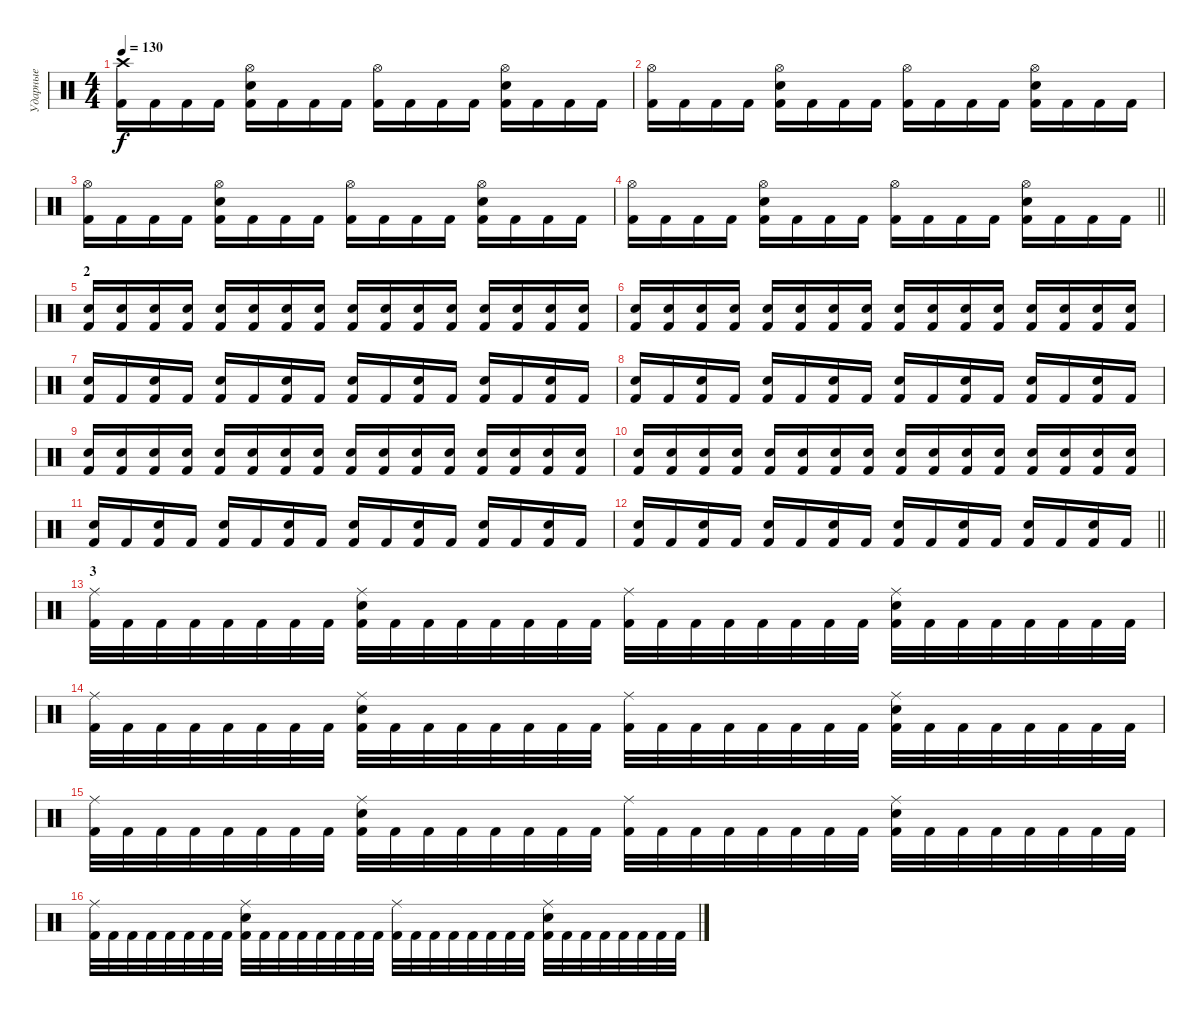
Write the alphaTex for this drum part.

\track ("Ударные" "Ударные") {instrument percussion}
\staff {score}
\articulation defaults
\ts (4 4)
\tempo 130
\clef neutral
\ks c
("Kick (hit) 2" "Crash high (hit)").16{dy f} "Kick (hit) 2".16 "Kick (hit) 2".16 "Kick (hit) 2".16 ("Kick (hit) 2" "Electric Snare (hit)" "Hi-Hat (open)").16 "Kick (hit) 2".16 "Kick (hit) 2".16 "Kick (hit) 2".16 ("Kick (hit) 2" "Hi-Hat (open)").16 "Kick (hit) 2".16 "Kick (hit) 2".16 "Kick (hit) 2".16 ("Kick (hit) 2" "Electric Snare (hit)" "Hi-Hat (open)").16 "Kick (hit) 2".16 "Kick (hit) 2".16 "Kick (hit) 2".16 |
("Kick (hit) 2" "Hi-Hat (open)").16 "Kick (hit) 2".16 "Kick (hit) 2".16 "Kick (hit) 2".16 ("Kick (hit) 2" "Electric Snare (hit)" "Hi-Hat (open)").16 "Kick (hit) 2".16 "Kick (hit) 2".16 "Kick (hit) 2".16 ("Kick (hit) 2" "Hi-Hat (open)").16 "Kick (hit) 2".16 "Kick (hit) 2".16 "Kick (hit) 2".16 ("Kick (hit) 2" "Electric Snare (hit)" "Hi-Hat (open)").16 "Kick (hit) 2".16 "Kick (hit) 2".16 "Kick (hit) 2".16 |
("Kick (hit) 2" "Hi-Hat (open)").16 "Kick (hit) 2".16 "Kick (hit) 2".16 "Kick (hit) 2".16 ("Kick (hit) 2" "Electric Snare (hit)" "Hi-Hat (open)").16 "Kick (hit) 2".16 "Kick (hit) 2".16 "Kick (hit) 2".16 ("Kick (hit) 2" "Hi-Hat (open)").16 "Kick (hit) 2".16 "Kick (hit) 2".16 "Kick (hit) 2".16 ("Kick (hit) 2" "Electric Snare (hit)" "Hi-Hat (open)").16 "Kick (hit) 2".16 "Kick (hit) 2".16 "Kick (hit) 2".16 |
\barLineRight lightlight
("Kick (hit) 2" "Hi-Hat (open)").16 "Kick (hit) 2".16 "Kick (hit) 2".16 "Kick (hit) 2".16 ("Kick (hit) 2" "Electric Snare (hit)" "Hi-Hat (open)").16 "Kick (hit) 2".16 "Kick (hit) 2".16 "Kick (hit) 2".16 ("Kick (hit) 2" "Hi-Hat (open)").16 "Kick (hit) 2".16 "Kick (hit) 2".16 "Kick (hit) 2".16 ("Kick (hit) 2" "Electric Snare (hit)" "Hi-Hat (open)").16 "Kick (hit) 2".16 "Kick (hit) 2".16 "Kick (hit) 2".16 |
\section ("" "2")
("Kick (hit) 2" "Electric Snare (hit)").16 ("Kick (hit) 2" "Electric Snare (hit)").16 ("Kick (hit) 2" "Electric Snare (hit)").16 ("Kick (hit) 2" "Electric Snare (hit)").16 ("Kick (hit) 2" "Electric Snare (hit)").16 ("Kick (hit) 2" "Electric Snare (hit)").16 ("Kick (hit) 2" "Electric Snare (hit)").16 ("Kick (hit) 2" "Electric Snare (hit)").16 ("Kick (hit) 2" "Electric Snare (hit)").16 ("Kick (hit) 2" "Electric Snare (hit)").16 ("Kick (hit) 2" "Electric Snare (hit)").16 ("Kick (hit) 2" "Electric Snare (hit)").16 ("Kick (hit) 2" "Electric Snare (hit)").16 ("Kick (hit) 2" "Electric Snare (hit)").16 ("Kick (hit) 2" "Electric Snare (hit)").16 ("Kick (hit) 2" "Electric Snare (hit)").16 |
("Kick (hit) 2" "Electric Snare (hit)").16 ("Kick (hit) 2" "Electric Snare (hit)").16 ("Kick (hit) 2" "Electric Snare (hit)").16 ("Kick (hit) 2" "Electric Snare (hit)").16 ("Kick (hit) 2" "Electric Snare (hit)").16 ("Kick (hit) 2" "Electric Snare (hit)").16 ("Kick (hit) 2" "Electric Snare (hit)").16 ("Kick (hit) 2" "Electric Snare (hit)").16 ("Kick (hit) 2" "Electric Snare (hit)").16 ("Kick (hit) 2" "Electric Snare (hit)").16 ("Kick (hit) 2" "Electric Snare (hit)").16 ("Kick (hit) 2" "Electric Snare (hit)").16 ("Kick (hit) 2" "Electric Snare (hit)").16 ("Kick (hit) 2" "Electric Snare (hit)").16 ("Kick (hit) 2" "Electric Snare (hit)").16 ("Kick (hit) 2" "Electric Snare (hit)").16 |
("Kick (hit) 2" "Electric Snare (hit)").16 "Kick (hit) 2".16 ("Kick (hit) 2" "Electric Snare (hit)").16 "Kick (hit) 2".16 ("Kick (hit) 2" "Electric Snare (hit)").16 "Kick (hit) 2".16 ("Kick (hit) 2" "Electric Snare (hit)").16 "Kick (hit) 2".16 ("Kick (hit) 2" "Electric Snare (hit)").16 "Kick (hit) 2".16 ("Kick (hit) 2" "Electric Snare (hit)").16 "Kick (hit) 2".16 ("Kick (hit) 2" "Electric Snare (hit)").16 "Kick (hit) 2".16 ("Kick (hit) 2" "Electric Snare (hit)").16 "Kick (hit) 2".16 |
("Kick (hit) 2" "Electric Snare (hit)").16 "Kick (hit) 2".16 ("Kick (hit) 2" "Electric Snare (hit)").16 "Kick (hit) 2".16 ("Kick (hit) 2" "Electric Snare (hit)").16 "Kick (hit) 2".16 ("Kick (hit) 2" "Electric Snare (hit)").16 "Kick (hit) 2".16 ("Kick (hit) 2" "Electric Snare (hit)").16 "Kick (hit) 2".16 ("Kick (hit) 2" "Electric Snare (hit)").16 "Kick (hit) 2".16 ("Kick (hit) 2" "Electric Snare (hit)").16 "Kick (hit) 2".16 ("Kick (hit) 2" "Electric Snare (hit)").16 "Kick (hit) 2".16 |
("Kick (hit) 2" "Electric Snare (hit)").16 ("Kick (hit) 2" "Electric Snare (hit)").16 ("Kick (hit) 2" "Electric Snare (hit)").16 ("Kick (hit) 2" "Electric Snare (hit)").16 ("Kick (hit) 2" "Electric Snare (hit)").16 ("Kick (hit) 2" "Electric Snare (hit)").16 ("Kick (hit) 2" "Electric Snare (hit)").16 ("Kick (hit) 2" "Electric Snare (hit)").16 ("Kick (hit) 2" "Electric Snare (hit)").16 ("Kick (hit) 2" "Electric Snare (hit)").16 ("Kick (hit) 2" "Electric Snare (hit)").16 ("Kick (hit) 2" "Electric Snare (hit)").16 ("Kick (hit) 2" "Electric Snare (hit)").16 ("Kick (hit) 2" "Electric Snare (hit)").16 ("Kick (hit) 2" "Electric Snare (hit)").16 ("Kick (hit) 2" "Electric Snare (hit)").16 |
("Kick (hit) 2" "Electric Snare (hit)").16 ("Kick (hit) 2" "Electric Snare (hit)").16 ("Kick (hit) 2" "Electric Snare (hit)").16 ("Kick (hit) 2" "Electric Snare (hit)").16 ("Kick (hit) 2" "Electric Snare (hit)").16 ("Kick (hit) 2" "Electric Snare (hit)").16 ("Kick (hit) 2" "Electric Snare (hit)").16 ("Kick (hit) 2" "Electric Snare (hit)").16 ("Kick (hit) 2" "Electric Snare (hit)").16 ("Kick (hit) 2" "Electric Snare (hit)").16 ("Kick (hit) 2" "Electric Snare (hit)").16 ("Kick (hit) 2" "Electric Snare (hit)").16 ("Kick (hit) 2" "Electric Snare (hit)").16 ("Kick (hit) 2" "Electric Snare (hit)").16 ("Kick (hit) 2" "Electric Snare (hit)").16 ("Kick (hit) 2" "Electric Snare (hit)").16 |
("Kick (hit) 2" "Electric Snare (hit)").16 "Kick (hit) 2".16 ("Kick (hit) 2" "Electric Snare (hit)").16 "Kick (hit) 2".16 ("Kick (hit) 2" "Electric Snare (hit)").16 "Kick (hit) 2".16 ("Kick (hit) 2" "Electric Snare (hit)").16 "Kick (hit) 2".16 ("Kick (hit) 2" "Electric Snare (hit)").16 "Kick (hit) 2".16 ("Kick (hit) 2" "Electric Snare (hit)").16 "Kick (hit) 2".16 ("Kick (hit) 2" "Electric Snare (hit)").16 "Kick (hit) 2".16 ("Kick (hit) 2" "Electric Snare (hit)").16 "Kick (hit) 2".16 |
\barLineRight lightlight
("Kick (hit) 2" "Electric Snare (hit)").16 "Kick (hit) 2".16 ("Kick (hit) 2" "Electric Snare (hit)").16 "Kick (hit) 2".16 ("Kick (hit) 2" "Electric Snare (hit)").16 "Kick (hit) 2".16 ("Kick (hit) 2" "Electric Snare (hit)").16 "Kick (hit) 2".16 ("Kick (hit) 2" "Electric Snare (hit)").16 "Kick (hit) 2".16 ("Kick (hit) 2" "Electric Snare (hit)").16 "Kick (hit) 2".16 ("Kick (hit) 2" "Electric Snare (hit)").16 "Kick (hit) 2".16 ("Kick (hit) 2" "Electric Snare (hit)").16 "Kick (hit) 2".16 |
\section ("" "3")
("Kick (hit) 2" "Ride (middle)").32 "Kick (hit) 2".32 "Kick (hit) 2".32 "Kick (hit) 2".32 "Kick (hit) 2".32 "Kick (hit) 2".32 "Kick (hit) 2".32 "Kick (hit) 2".32 ("Kick (hit) 2" "Electric Snare (hit)" "Ride (middle)").32 "Kick (hit) 2".32 "Kick (hit) 2".32 "Kick (hit) 2".32 "Kick (hit) 2".32 "Kick (hit) 2".32 "Kick (hit) 2".32 "Kick (hit) 2".32 ("Kick (hit) 2" "Ride (middle)").32 "Kick (hit) 2".32 "Kick (hit) 2".32 "Kick (hit) 2".32 "Kick (hit) 2".32 "Kick (hit) 2".32 "Kick (hit) 2".32 "Kick (hit) 2".32 ("Kick (hit) 2" "Electric Snare (hit)" "Ride (middle)").32 "Kick (hit) 2".32 "Kick (hit) 2".32 "Kick (hit) 2".32 "Kick (hit) 2".32 "Kick (hit) 2".32 "Kick (hit) 2".32 "Kick (hit) 2".32 |
("Kick (hit) 2" "Ride (middle)").32 "Kick (hit) 2".32 "Kick (hit) 2".32 "Kick (hit) 2".32 "Kick (hit) 2".32 "Kick (hit) 2".32 "Kick (hit) 2".32 "Kick (hit) 2".32 ("Kick (hit) 2" "Electric Snare (hit)" "Ride (middle)").32 "Kick (hit) 2".32 "Kick (hit) 2".32 "Kick (hit) 2".32 "Kick (hit) 2".32 "Kick (hit) 2".32 "Kick (hit) 2".32 "Kick (hit) 2".32 ("Kick (hit) 2" "Ride (middle)").32 "Kick (hit) 2".32 "Kick (hit) 2".32 "Kick (hit) 2".32 "Kick (hit) 2".32 "Kick (hit) 2".32 "Kick (hit) 2".32 "Kick (hit) 2".32 ("Kick (hit) 2" "Electric Snare (hit)" "Ride (middle)").32 "Kick (hit) 2".32 "Kick (hit) 2".32 "Kick (hit) 2".32 "Kick (hit) 2".32 "Kick (hit) 2".32 "Kick (hit) 2".32 "Kick (hit) 2".32 |
("Kick (hit) 2" "Ride (middle)").32 "Kick (hit) 2".32 "Kick (hit) 2".32 "Kick (hit) 2".32 "Kick (hit) 2".32 "Kick (hit) 2".32 "Kick (hit) 2".32 "Kick (hit) 2".32 ("Kick (hit) 2" "Electric Snare (hit)" "Ride (middle)").32 "Kick (hit) 2".32 "Kick (hit) 2".32 "Kick (hit) 2".32 "Kick (hit) 2".32 "Kick (hit) 2".32 "Kick (hit) 2".32 "Kick (hit) 2".32 ("Kick (hit) 2" "Ride (middle)").32 "Kick (hit) 2".32 "Kick (hit) 2".32 "Kick (hit) 2".32 "Kick (hit) 2".32 "Kick (hit) 2".32 "Kick (hit) 2".32 "Kick (hit) 2".32 ("Kick (hit) 2" "Electric Snare (hit)" "Ride (middle)").32 "Kick (hit) 2".32 "Kick (hit) 2".32 "Kick (hit) 2".32 "Kick (hit) 2".32 "Kick (hit) 2".32 "Kick (hit) 2".32 "Kick (hit) 2".32 |
("Kick (hit) 2" "Ride (middle)").32 "Kick (hit) 2".32 "Kick (hit) 2".32 "Kick (hit) 2".32 "Kick (hit) 2".32 "Kick (hit) 2".32 "Kick (hit) 2".32 "Kick (hit) 2".32 ("Kick (hit) 2" "Electric Snare (hit)" "Ride (middle)").32 "Kick (hit) 2".32 "Kick (hit) 2".32 "Kick (hit) 2".32 "Kick (hit) 2".32 "Kick (hit) 2".32 "Kick (hit) 2".32 "Kick (hit) 2".32 ("Kick (hit) 2" "Ride (middle)").32 "Kick (hit) 2".32 "Kick (hit) 2".32 "Kick (hit) 2".32 "Kick (hit) 2".32 "Kick (hit) 2".32 "Kick (hit) 2".32 "Kick (hit) 2".32 ("Kick (hit) 2" "Electric Snare (hit)" "Ride (middle)").32 "Kick (hit) 2".32 "Kick (hit) 2".32 "Kick (hit) 2".32 "Kick (hit) 2".32 "Kick (hit) 2".32 "Kick (hit) 2".32 "Kick (hit) 2".32
